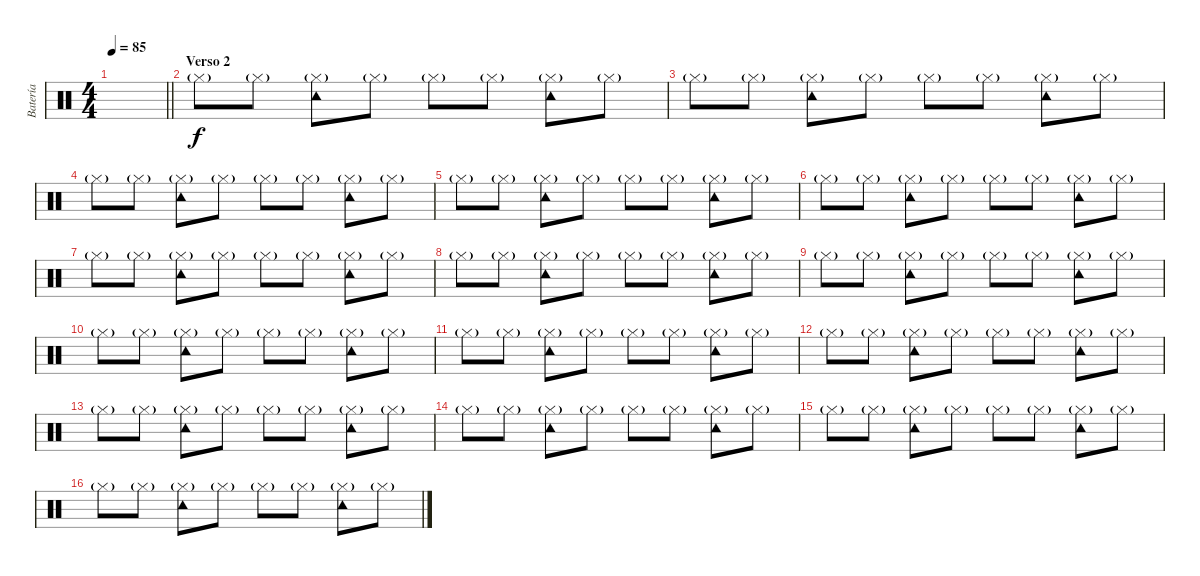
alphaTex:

\track ("Batería" "Batería") {instrument percussion}
\staff {score}
\articulation defaults
\ts (4 4)
\tempo 85
\clef neutral
\barLineRight lightlight
\ks c
|
\section ("" "Verso 2")
"Hi-Hat (closed)"{g}.8 "Hi-Hat (closed)"{g}.8 ("Tambourine (hit)" "Hi-Hat (closed)"{g}).8 "Hi-Hat (closed)"{g}.8 "Hi-Hat (closed)"{g}.8 "Hi-Hat (closed)"{g}.8 ("Tambourine (hit)" "Hi-Hat (closed)"{g}).8 "Hi-Hat (closed)"{g}.8 |
"Hi-Hat (closed)"{g}.8 "Hi-Hat (closed)"{g}.8 ("Tambourine (hit)" "Hi-Hat (closed)"{g}).8 "Hi-Hat (closed)"{g}.8 "Hi-Hat (closed)"{g}.8 "Hi-Hat (closed)"{g}.8 ("Tambourine (hit)" "Hi-Hat (closed)"{g}).8 "Hi-Hat (closed)"{g}.8 |
"Hi-Hat (closed)"{g}.8 "Hi-Hat (closed)"{g}.8 ("Tambourine (hit)" "Hi-Hat (closed)"{g}).8 "Hi-Hat (closed)"{g}.8 "Hi-Hat (closed)"{g}.8 "Hi-Hat (closed)"{g}.8 ("Tambourine (hit)" "Hi-Hat (closed)"{g}).8 "Hi-Hat (closed)"{g}.8 |
"Hi-Hat (closed)"{g}.8 "Hi-Hat (closed)"{g}.8 ("Tambourine (hit)" "Hi-Hat (closed)"{g}).8 "Hi-Hat (closed)"{g}.8 "Hi-Hat (closed)"{g}.8 "Hi-Hat (closed)"{g}.8 ("Tambourine (hit)" "Hi-Hat (closed)"{g}).8 "Hi-Hat (closed)"{g}.8 |
"Hi-Hat (closed)"{g}.8 "Hi-Hat (closed)"{g}.8 ("Tambourine (hit)" "Hi-Hat (closed)"{g}).8 "Hi-Hat (closed)"{g}.8 "Hi-Hat (closed)"{g}.8 "Hi-Hat (closed)"{g}.8 ("Tambourine (hit)" "Hi-Hat (closed)"{g}).8 "Hi-Hat (closed)"{g}.8 |
"Hi-Hat (closed)"{g}.8 "Hi-Hat (closed)"{g}.8 ("Tambourine (hit)" "Hi-Hat (closed)"{g}).8 "Hi-Hat (closed)"{g}.8 "Hi-Hat (closed)"{g}.8 "Hi-Hat (closed)"{g}.8 ("Tambourine (hit)" "Hi-Hat (closed)"{g}).8 "Hi-Hat (closed)"{g}.8 |
"Hi-Hat (closed)"{g}.8 "Hi-Hat (closed)"{g}.8 ("Tambourine (hit)" "Hi-Hat (closed)"{g}).8 "Hi-Hat (closed)"{g}.8 "Hi-Hat (closed)"{g}.8 "Hi-Hat (closed)"{g}.8 ("Tambourine (hit)" "Hi-Hat (closed)"{g}).8 "Hi-Hat (closed)"{g}.8 |
"Hi-Hat (closed)"{g}.8 "Hi-Hat (closed)"{g}.8 ("Tambourine (hit)" "Hi-Hat (closed)"{g}).8 "Hi-Hat (closed)"{g}.8 "Hi-Hat (closed)"{g}.8 "Hi-Hat (closed)"{g}.8 ("Tambourine (hit)" "Hi-Hat (closed)"{g}).8 "Hi-Hat (closed)"{g}.8 |
"Hi-Hat (closed)"{g}.8 "Hi-Hat (closed)"{g}.8 ("Tambourine (hit)" "Hi-Hat (closed)"{g}).8 "Hi-Hat (closed)"{g}.8 "Hi-Hat (closed)"{g}.8 "Hi-Hat (closed)"{g}.8 ("Tambourine (hit)" "Hi-Hat (closed)"{g}).8 "Hi-Hat (closed)"{g}.8 |
"Hi-Hat (closed)"{g}.8 "Hi-Hat (closed)"{g}.8 ("Tambourine (hit)" "Hi-Hat (closed)"{g}).8 "Hi-Hat (closed)"{g}.8 "Hi-Hat (closed)"{g}.8 "Hi-Hat (closed)"{g}.8 ("Tambourine (hit)" "Hi-Hat (closed)"{g}).8 "Hi-Hat (closed)"{g}.8 |
"Hi-Hat (closed)"{g}.8 "Hi-Hat (closed)"{g}.8 ("Tambourine (hit)" "Hi-Hat (closed)"{g}).8 "Hi-Hat (closed)"{g}.8 "Hi-Hat (closed)"{g}.8 "Hi-Hat (closed)"{g}.8 ("Tambourine (hit)" "Hi-Hat (closed)"{g}).8 "Hi-Hat (closed)"{g}.8 |
"Hi-Hat (closed)"{g}.8 "Hi-Hat (closed)"{g}.8 ("Tambourine (hit)" "Hi-Hat (closed)"{g}).8 "Hi-Hat (closed)"{g}.8 "Hi-Hat (closed)"{g}.8 "Hi-Hat (closed)"{g}.8 ("Tambourine (hit)" "Hi-Hat (closed)"{g}).8 "Hi-Hat (closed)"{g}.8 |
"Hi-Hat (closed)"{g}.8 "Hi-Hat (closed)"{g}.8 ("Tambourine (hit)" "Hi-Hat (closed)"{g}).8 "Hi-Hat (closed)"{g}.8 "Hi-Hat (closed)"{g}.8 "Hi-Hat (closed)"{g}.8 ("Tambourine (hit)" "Hi-Hat (closed)"{g}).8 "Hi-Hat (closed)"{g}.8 |
"Hi-Hat (closed)"{g}.8 "Hi-Hat (closed)"{g}.8 ("Tambourine (hit)" "Hi-Hat (closed)"{g}).8 "Hi-Hat (closed)"{g}.8 "Hi-Hat (closed)"{g}.8 "Hi-Hat (closed)"{g}.8 ("Tambourine (hit)" "Hi-Hat (closed)"{g}).8 "Hi-Hat (closed)"{g}.8 |
"Hi-Hat (closed)"{g}.8 "Hi-Hat (closed)"{g}.8 ("Tambourine (hit)" "Hi-Hat (closed)"{g}).8 "Hi-Hat (closed)"{g}.8 "Hi-Hat (closed)"{g}.8 "Hi-Hat (closed)"{g}.8 ("Tambourine (hit)" "Hi-Hat (closed)"{g}).8 "Hi-Hat (closed)"{g}.8
